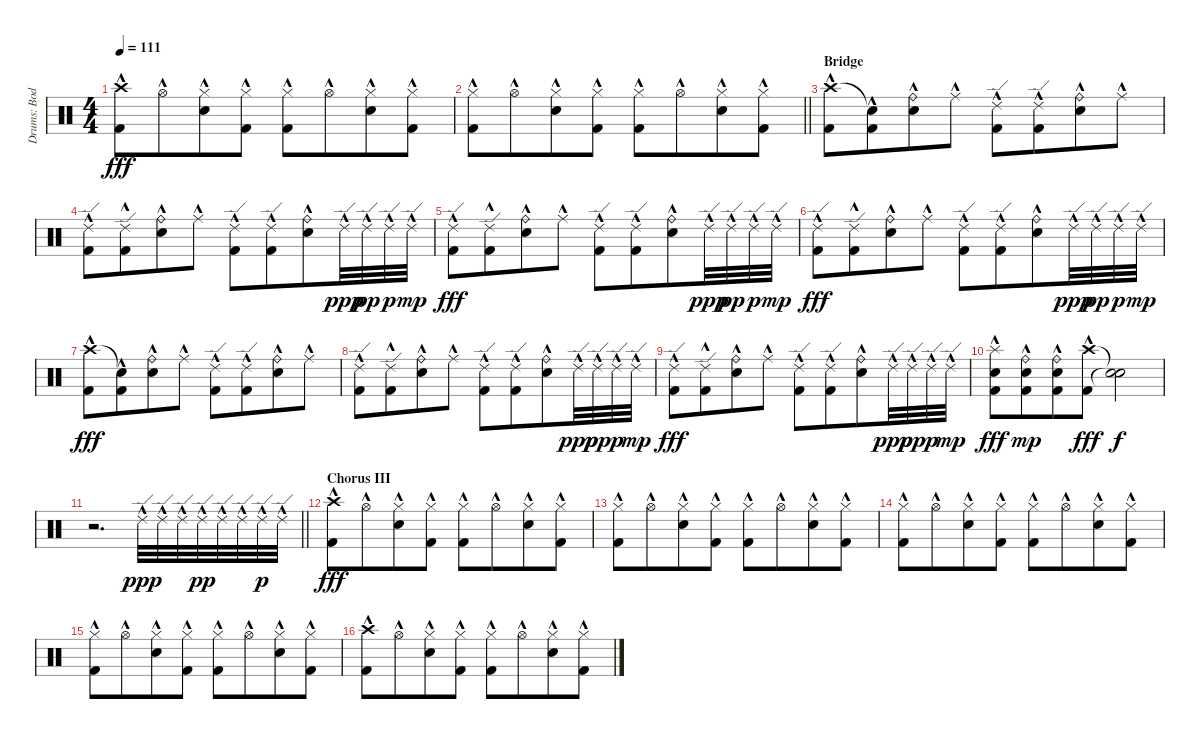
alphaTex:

\track ("Drums: Bodo" "Drums: Bod") {instrument percussion}
\staff {score}
\articulation defaults
\ts (4 4)
\tempo 111
\clef neutral
\ks c
("Crash high (hit)"{hac} "Kick (hit) 2"{hac}).8{dy fff} "Hi-Hat (open)"{hac}.8{beam merge} ("Hi-Hat (closed)"{hac} "Electric Snare (hit)"{hac}).8 ("Hi-Hat (closed)"{hac} "Kick (hit) 2"{hac}).8 ("Hi-Hat (closed)"{hac} "Kick (hit) 2"{hac}).8 "Hi-Hat (open)"{hac}.8{beam merge} ("Hi-Hat (closed)"{hac} "Electric Snare (hit)"{hac}).8 ("Hi-Hat (closed)"{hac} "Kick (hit) 2"{hac}).8 |
\barLineRight lightlight
("Hi-Hat (closed)"{hac} "Kick (hit) 2"{hac}).8 "Hi-Hat (open)"{hac}.8{beam merge} ("Hi-Hat (closed)"{hac} "Electric Snare (hit)"{hac}).8 ("Hi-Hat (closed)"{hac} "Kick (hit) 2"{hac}).8 ("Hi-Hat (closed)"{hac} "Kick (hit) 2"{hac}).8 "Hi-Hat (open)"{hac}.8{beam merge} ("Hi-Hat (closed)"{hac} "Electric Snare (hit)"{hac}).8 ("Hi-Hat (closed)"{hac} "Kick (hit) 2"{hac}).8 |
\section ("" "Bridge")
("Crash high (hit)"{hac} "Kick (hit) 2"{hac}).8 ("Snare (hit)"{t} "Kick (hit) 2"{hac}).8{beam merge} ("Ride (bell)"{hac} "Electric Snare (hit)"{hac}).8 "Ride (middle)"{hac}.8 ("Ride (edge) 2"{hac} "Kick (hit) 2"{hac}).8 ("Ride (edge) 2"{hac} "Kick (hit) 2"{hac}).8{beam merge} ("Ride (bell)"{hac} "Electric Snare (hit)"{hac}).8 "Ride (middle)"{hac}.8 |
("Ride (edge) 2"{hac} "Kick (hit) 2"{hac}).8 ("Ride (edge) 2" "Kick (hit) 2"{hac}).8{beam merge} ("Ride (bell)"{hac} "Electric Snare (hit)"{hac}).8 "Ride (middle)"{hac}.8 ("Ride (edge) 2"{hac} "Kick (hit) 2"{hac}).8 ("Ride (edge) 2"{hac} "Kick (hit) 2"{hac}).8{beam merge} ("Ride (bell)"{hac} "Electric Snare (hit)"{hac}).8 "Ride (edge) 2"{hac}.32{dy ppp} "Ride (edge) 2"{hac}.32{dy pp} "Ride (edge) 2"{hac}.32{dy p} "Ride (edge) 2"{hac}.32{dy mp} |
("Ride (edge) 2"{hac} "Kick (hit) 2"{hac}).8{dy fff} ("Ride (edge) 2" "Kick (hit) 2"{hac}).8{beam merge} ("Ride (bell)"{hac} "Electric Snare (hit)"{hac}).8 "Ride (middle)"{hac}.8 ("Ride (edge) 2"{hac} "Kick (hit) 2"{hac}).8 ("Ride (edge) 2"{hac} "Kick (hit) 2"{hac}).8{beam merge} ("Ride (bell)"{hac} "Electric Snare (hit)"{hac}).8 "Ride (edge) 2"{hac}.32{dy ppp} "Ride (edge) 2"{hac}.32{dy pp} "Ride (edge) 2"{hac}.32{dy p} "Ride (edge) 2"{hac}.32{dy mp} |
("Ride (edge) 2"{hac} "Kick (hit) 2"{hac}).8{dy fff} ("Ride (edge) 2" "Kick (hit) 2"{hac}).8{beam merge} ("Ride (bell)"{hac} "Electric Snare (hit)"{hac}).8 "Ride (middle)"{hac}.8 ("Ride (edge) 2"{hac} "Kick (hit) 2"{hac}).8 ("Ride (edge) 2"{hac} "Kick (hit) 2"{hac}).8{beam merge} ("Ride (bell)"{hac} "Electric Snare (hit)"{hac}).8 "Ride (edge) 2"{hac}.32{dy ppp} "Ride (edge) 2"{hac}.32{dy pp} "Ride (edge) 2"{hac}.32{dy p} "Ride (edge) 2"{hac}.32{dy mp} |
("Crash high (hit)"{hac} "Kick (hit) 2"{hac}).8{dy fff} ("Snare (hit)"{t} "Kick (hit) 2"{hac}).8{beam merge} ("Ride (bell)"{hac} "Electric Snare (hit)"{hac}).8 "Ride (middle)"{hac}.8 ("Ride (edge) 2"{hac} "Kick (hit) 2"{hac}).8 ("Ride (edge) 2"{hac} "Kick (hit) 2"{hac}).8{beam merge} ("Ride (bell)"{hac} "Electric Snare (hit)"{hac}).8 "Ride (middle)"{hac}.8 |
("Ride (edge) 2"{hac} "Kick (hit) 2"{hac}).8 ("Ride (edge) 2" "Kick (hit) 2"{hac}).8{beam merge} ("Ride (bell)"{hac} "Electric Snare (hit)"{hac}).8 "Ride (middle)"{hac}.8 ("Ride (edge) 2"{hac} "Kick (hit) 2"{hac}).8 ("Ride (edge) 2"{hac} "Kick (hit) 2"{hac}).8{beam merge} ("Ride (bell)"{hac} "Electric Snare (hit)"{hac}).8 "Ride (edge) 2"{hac}.32{dy ppp} "Ride (edge) 2"{hac}.32{dy pp} "Ride (edge) 2"{hac}.32{dy p} "Ride (edge) 2"{hac}.32{dy mp} |
("Ride (edge) 2"{hac} "Kick (hit) 2"{hac}).8{dy fff} ("Ride (edge) 2" "Kick (hit) 2"{hac}).8{beam merge} ("Ride (bell)"{hac} "Electric Snare (hit)"{hac}).8 "Ride (middle)"{hac}.8 ("Ride (edge) 2"{hac} "Kick (hit) 2"{hac}).8 ("Ride (edge) 2"{hac} "Kick (hit) 2"{hac}).8{beam merge} ("Ride (bell)"{hac} "Electric Snare (hit)"{hac}).8 "Ride (edge) 2"{hac}.32{dy ppp} "Ride (edge) 2"{hac}.32{dy pp} "Ride (edge) 2"{hac}.32{dy p} "Ride (edge) 2"{hac}.32{dy mp} |
("Splash (hit)"{hac} "Electric Snare (hit)" "Kick (hit) 2"{hac}).8{dy fff beam merge} ("Ride (bell)"{hac} "Electric Snare (hit)"{hac} "Kick (hit) 2").8{dy mp beam merge} ("Ride (bell)"{hac} "Electric Snare (hit)"{hac} "Kick (hit) 2").8 ("Crash high (hit)"{hac} "Kick (hit) 2"{hac}).8{dy fff} ("Snare (hit)"{t} "Snare (hit)"{t}).2{dy f} |
\barLineRight lightlight
r.2{d} "Ride (edge) 2"{hac}.32{dy ppp} "Ride (edge) 2"{hac}.32 "Ride (edge) 2"{hac}.32 "Ride (edge) 2"{hac}.32{dy pp} "Ride (edge) 2"{hac}.32 "Ride (edge) 2"{hac}.32 "Ride (edge) 2"{hac}.32{dy p} "Ride (edge) 2"{hac}.32 |
\section ("" "Chorus III")
("Crash high (hit)"{hac} "Kick (hit) 2"{hac}).8{dy fff} "Hi-Hat (open)"{hac}.8{beam merge} ("Hi-Hat (closed)"{hac} "Electric Snare (hit)"{hac}).8 ("Hi-Hat (closed)"{hac} "Kick (hit) 2"{hac}).8 ("Hi-Hat (closed)"{hac} "Kick (hit) 2"{hac}).8 "Hi-Hat (open)"{hac}.8{beam merge} ("Hi-Hat (closed)"{hac} "Electric Snare (hit)"{hac}).8 ("Hi-Hat (closed)"{hac} "Kick (hit) 2"{hac}).8 |
("Hi-Hat (closed)"{hac} "Kick (hit) 2"{hac}).8 "Hi-Hat (open)"{hac}.8{beam merge} ("Hi-Hat (closed)"{hac} "Electric Snare (hit)"{hac}).8 ("Hi-Hat (closed)"{hac} "Kick (hit) 2"{hac}).8 ("Hi-Hat (closed)"{hac} "Kick (hit) 2"{hac}).8 "Hi-Hat (open)"{hac}.8{beam merge} ("Hi-Hat (closed)"{hac} "Electric Snare (hit)"{hac}).8 ("Hi-Hat (closed)"{hac} "Kick (hit) 2"{hac}).8 |
("Hi-Hat (closed)"{hac} "Kick (hit) 2"{hac}).8 "Hi-Hat (open)"{hac}.8{beam merge} ("Hi-Hat (closed)"{hac} "Electric Snare (hit)"{hac}).8 ("Hi-Hat (closed)"{hac} "Kick (hit) 2"{hac}).8 ("Hi-Hat (closed)"{hac} "Kick (hit) 2"{hac}).8 "Hi-Hat (open)"{hac}.8{beam merge} ("Hi-Hat (closed)"{hac} "Electric Snare (hit)"{hac}).8 ("Hi-Hat (closed)"{hac} "Kick (hit) 2"{hac}).8 |
("Hi-Hat (closed)"{hac} "Kick (hit) 2"{hac}).8 "Hi-Hat (open)"{hac}.8{beam merge} ("Hi-Hat (closed)"{hac} "Electric Snare (hit)"{hac}).8 ("Hi-Hat (closed)"{hac} "Kick (hit) 2"{hac}).8 ("Hi-Hat (closed)"{hac} "Kick (hit) 2"{hac}).8 "Hi-Hat (open)"{hac}.8{beam merge} ("Hi-Hat (closed)"{hac} "Electric Snare (hit)"{hac}).8 ("Hi-Hat (closed)"{hac} "Kick (hit) 2"{hac}).8 |
("Crash high (hit)"{hac} "Kick (hit) 2"{hac}).8 "Hi-Hat (open)"{hac}.8{beam merge} ("Hi-Hat (closed)"{hac} "Electric Snare (hit)"{hac}).8 ("Hi-Hat (closed)"{hac} "Kick (hit) 2"{hac}).8 ("Hi-Hat (closed)"{hac} "Kick (hit) 2"{hac}).8 "Hi-Hat (open)"{hac}.8{beam merge} ("Hi-Hat (closed)"{hac} "Electric Snare (hit)"{hac}).8 ("Hi-Hat (closed)"{hac} "Kick (hit) 2"{hac}).8
